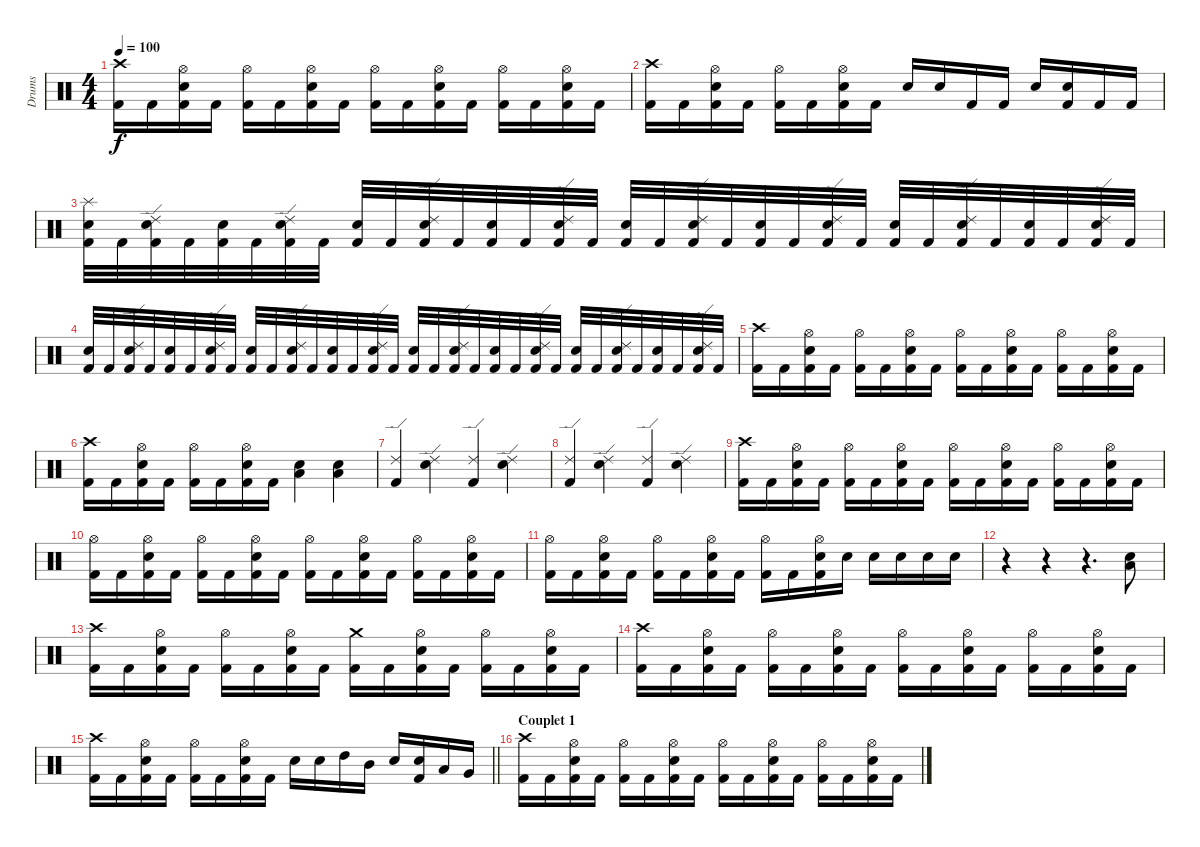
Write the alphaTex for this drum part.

\track ("Drums" "Drums") {instrument percussion}
\staff {score}
\articulation defaults
\ts (4 4)
\tempo 100
\clef neutral
\ks c
("Crash high (hit)" "Kick (hit) 2").16{dy f} "Kick (hit) 2".16 ("Snare (hit) 2" "Hi-Hat (open)" "Kick (hit) 2").16 "Kick (hit) 2".16 ("Hi-Hat (open)" "Kick (hit) 2").16 "Kick (hit) 2".16 ("Hi-Hat (open)" "Snare (hit) 2" "Kick (hit) 2").16 "Kick (hit) 2".16 ("Hi-Hat (open)" "Kick (hit) 2").16 "Kick (hit) 2".16 ("Hi-Hat (open)" "Snare (hit) 2" "Kick (hit) 2").16 "Kick (hit) 2".16 ("Hi-Hat (open)" "Kick (hit) 2").16 "Kick (hit) 2".16 ("Hi-Hat (open)" "Snare (hit) 2" "Kick (hit) 2").16 "Kick (hit) 2".16 |
("Crash high (hit)" "Kick (hit) 2").16 "Kick (hit) 2".16 ("Snare (hit) 2" "Hi-Hat (open)" "Kick (hit) 2").16 "Kick (hit) 2".16 ("Hi-Hat (open)" "Kick (hit) 2").16 "Kick (hit) 2".16 ("Hi-Hat (open)" "Snare (hit) 2" "Kick (hit) 2").16 "Kick (hit) 2".16 "Snare (hit) 2".16 "Snare (hit) 2".16 "Kick (hit) 2".16 "Kick (hit) 2".16 "Snare (hit) 2".16 ("Snare (hit) 2" "Kick (hit) 2").16 "Kick (hit) 2".16 "Kick (hit) 2".16 |
("Snare (hit) 2" "Splash (hit)" "Kick (hit) 2").32 "Kick (hit) 2".32 ("Snare (hit) 2" "Ride (edge) 2" "Kick (hit) 2").32 "Kick (hit) 2".32 ("Snare (hit) 2" "Kick (hit) 2").32 "Kick (hit) 2".32 ("Snare (hit) 2" "Ride (edge) 2" "Kick (hit) 2").32 "Kick (hit) 2".32 ("Snare (hit) 2" "Kick (hit) 2").32 "Kick (hit) 2".32 ("Snare (hit) 2" "Ride (edge) 2" "Kick (hit) 2").32 "Kick (hit) 2".32 ("Snare (hit) 2" "Kick (hit) 2").32 "Kick (hit) 2".32 ("Snare (hit) 2" "Ride (edge) 2" "Kick (hit) 2").32 "Kick (hit) 2".32 ("Snare (hit) 2" "Kick (hit) 2").32 "Kick (hit) 2".32 ("Snare (hit) 2" "Ride (edge) 2" "Kick (hit) 2").32 "Kick (hit) 2".32 ("Snare (hit) 2" "Kick (hit) 2").32 "Kick (hit) 2".32 ("Snare (hit) 2" "Ride (edge) 2" "Kick (hit) 2").32 "Kick (hit) 2".32 ("Snare (hit) 2" "Kick (hit) 2").32 "Kick (hit) 2".32 ("Snare (hit) 2" "Ride (edge) 2" "Kick (hit) 2").32 "Kick (hit) 2".32 ("Snare (hit) 2" "Kick (hit) 2").32 "Kick (hit) 2".32 ("Snare (hit) 2" "Ride (edge) 2" "Kick (hit) 2").32 "Kick (hit) 2".32 |
("Snare (hit) 2" "Kick (hit) 2").32 "Kick (hit) 2".32 ("Snare (hit) 2" "Ride (edge) 2" "Kick (hit) 2").32 "Kick (hit) 2".32 ("Snare (hit) 2" "Kick (hit) 2").32 "Kick (hit) 2".32 ("Snare (hit) 2" "Ride (edge) 2" "Kick (hit) 2").32 "Kick (hit) 2".32 ("Snare (hit) 2" "Kick (hit) 2").32 "Kick (hit) 2".32 ("Snare (hit) 2" "Ride (edge) 2" "Kick (hit) 2").32 "Kick (hit) 2".32 ("Snare (hit) 2" "Kick (hit) 2").32 "Kick (hit) 2".32 ("Snare (hit) 2" "Ride (edge) 2" "Kick (hit) 2").32 "Kick (hit) 2".32 ("Snare (hit) 2" "Kick (hit) 2").32 "Kick (hit) 2".32 ("Snare (hit) 2" "Ride (edge) 2" "Kick (hit) 2").32 "Kick (hit) 2".32 ("Snare (hit) 2" "Kick (hit) 2").32 "Kick (hit) 2".32 ("Snare (hit) 2" "Ride (edge) 2" "Kick (hit) 2").32 "Kick (hit) 2".32 ("Snare (hit) 2" "Kick (hit) 2").32 "Kick (hit) 2".32 ("Snare (hit) 2" "Ride (edge) 2" "Kick (hit) 2").32 "Kick (hit) 2".32 ("Snare (hit) 2" "Kick (hit) 2").32 "Kick (hit) 2".32 ("Snare (hit) 2" "Ride (edge) 2" "Kick (hit) 2").32 "Kick (hit) 2".32 |
("Crash high (hit)" "Kick (hit) 2").16 "Kick (hit) 2".16 ("Snare (hit) 2" "Hi-Hat (open)" "Kick (hit) 2").16 "Kick (hit) 2".16 ("Hi-Hat (open)" "Kick (hit) 2").16 "Kick (hit) 2".16 ("Hi-Hat (open)" "Snare (hit) 2" "Kick (hit) 2").16 "Kick (hit) 2".16 ("Hi-Hat (open)" "Kick (hit) 2").16 "Kick (hit) 2".16 ("Hi-Hat (open)" "Snare (hit) 2" "Kick (hit) 2").16 "Kick (hit) 2".16 ("Hi-Hat (open)" "Kick (hit) 2").16 "Kick (hit) 2".16 ("Hi-Hat (open)" "Snare (hit) 2" "Kick (hit) 2").16 "Kick (hit) 2".16 |
("Crash high (hit)" "Kick (hit) 2").16 "Kick (hit) 2".16 ("Snare (hit) 2" "Hi-Hat (open)" "Kick (hit) 2").16 "Kick (hit) 2".16 ("Hi-Hat (open)" "Kick (hit) 2").16 "Kick (hit) 2".16 ("Hi-Hat (open)" "Snare (hit) 2" "Kick (hit) 2").16 "Kick (hit) 2".16 ("Snare (hit) 2" "Low Floor Tom (hit)").4 ("Snare (hit) 2" "Low Floor Tom (hit)").4 |
("Ride (edge) 2" "Kick (hit) 2").4 ("Ride (edge) 2" "Snare (hit) 2").4 ("Ride (edge) 2" "Kick (hit) 2").4 ("Ride (edge) 2" "Snare (hit) 2").4 |
("Ride (edge) 2" "Kick (hit) 2").4 ("Ride (edge) 2" "Snare (hit) 2").4 ("Ride (edge) 2" "Kick (hit) 2").4 ("Ride (edge) 2" "Snare (hit) 2").4 |
("Crash high (hit)" "Kick (hit) 2").16 "Kick (hit) 2".16 ("Hi-Hat (open)" "Snare (hit) 2" "Kick (hit) 2").16 "Kick (hit) 2".16 ("Hi-Hat (open)" "Kick (hit) 2").16 "Kick (hit) 2".16 ("Hi-Hat (open)" "Snare (hit) 2" "Kick (hit) 2").16 "Kick (hit) 2".16 ("Hi-Hat (open)" "Kick (hit) 2").16 "Kick (hit) 2".16 ("Hi-Hat (open)" "Snare (hit) 2" "Kick (hit) 2").16 "Kick (hit) 2".16 ("Hi-Hat (open)" "Kick (hit) 2").16 "Kick (hit) 2".16 ("Hi-Hat (open)" "Snare (hit) 2" "Kick (hit) 2").16 "Kick (hit) 2".16 |
("Hi-Hat (open)" "Kick (hit) 2").16 "Kick (hit) 2".16 ("Hi-Hat (open)" "Snare (hit) 2" "Kick (hit) 2").16 "Kick (hit) 2".16 ("Hi-Hat (open)" "Kick (hit) 2").16 "Kick (hit) 2".16 ("Hi-Hat (open)" "Snare (hit) 2" "Kick (hit) 2").16 "Kick (hit) 2".16 ("Hi-Hat (open)" "Kick (hit) 2").16 "Kick (hit) 2".16 ("Hi-Hat (open)" "Snare (hit) 2" "Kick (hit) 2").16 "Kick (hit) 2".16 ("Hi-Hat (open)" "Kick (hit) 2").16 "Kick (hit) 2".16 ("Hi-Hat (open)" "Snare (hit) 2" "Kick (hit) 2").16 "Kick (hit) 2".16 |
("Hi-Hat (open)" "Kick (hit) 2").16 "Kick (hit) 2".16 ("Hi-Hat (open)" "Snare (hit) 2" "Kick (hit) 2").16 "Kick (hit) 2".16 ("Hi-Hat (open)" "Kick (hit) 2").16 "Kick (hit) 2".16 ("Hi-Hat (open)" "Snare (hit) 2" "Kick (hit) 2").16 "Kick (hit) 2".16 ("Hi-Hat (open)" "Kick (hit) 2").16 "Kick (hit) 2".16 ("Hi-Hat (open)" "Snare (hit) 2" "Kick (hit) 2").16 "Snare (hit) 2".16 "Snare (hit) 2".16 "Snare (hit) 2".16 "Snare (hit) 2".16 "Snare (hit) 2".16 |
r.4 r.4 r.4{d} ("Low Floor Tom (hit)" "Snare (hit) 2").8 |
("Crash high (hit)" "Kick (hit) 2").16 "Kick (hit) 2".16 ("Snare (hit) 2" "Hi-Hat (open)" "Kick (hit) 2").16 "Kick (hit) 2".16 ("Hi-Hat (open)" "Kick (hit) 2").16 "Kick (hit) 2".16 ("Hi-Hat (open)" "Snare (hit) 2" "Kick (hit) 2").16 "Kick (hit) 2".16 ("Crash medium (hit)" "Kick (hit) 2").16 "Kick (hit) 2".16 ("Hi-Hat (open)" "Snare (hit) 2" "Kick (hit) 2").16 "Kick (hit) 2".16 ("Hi-Hat (open)" "Kick (hit) 2").16 "Kick (hit) 2".16 ("Hi-Hat (open)" "Snare (hit) 2" "Kick (hit) 2").16 "Kick (hit) 2".16 |
("Crash high (hit)" "Kick (hit) 2").16 "Kick (hit) 2".16 ("Snare (hit) 2" "Hi-Hat (open)" "Kick (hit) 2").16 "Kick (hit) 2".16 ("Hi-Hat (open)" "Kick (hit) 2").16 "Kick (hit) 2".16 ("Hi-Hat (open)" "Snare (hit) 2" "Kick (hit) 2").16 "Kick (hit) 2".16 ("Hi-Hat (open)" "Kick (hit) 2").16 "Kick (hit) 2".16 ("Hi-Hat (open)" "Snare (hit) 2" "Kick (hit) 2").16 "Kick (hit) 2".16 ("Hi-Hat (open)" "Kick (hit) 2").16 "Kick (hit) 2".16 ("Hi-Hat (open)" "Snare (hit) 2" "Kick (hit) 2").16 "Kick (hit) 2".16 |
\barLineRight lightlight
("Crash high (hit)" "Kick (hit) 2").16 "Kick (hit) 2".16 ("Snare (hit) 2" "Hi-Hat (open)" "Kick (hit) 2").16 "Kick (hit) 2".16 ("Hi-Hat (open)" "Kick (hit) 2").16 "Kick (hit) 2".16 ("Hi-Hat (open)" "Snare (hit) 2" "Kick (hit) 2").16 "Kick (hit) 2".16 "Snare (hit) 2".16 "Snare (hit) 2".16 "High Tom (hit)".16 "Mid Tom (hit)".16 "Snare (hit) 2".16 ("Snare (hit) 2" "Kick (hit) 2").16 "Low Tom (hit)".16 "Very Low Tom (hit)".16 |
\section ("" "Couplet 1")
("Crash high (hit)" "Kick (hit) 2").16 "Kick (hit) 2".16 ("Hi-Hat (open)" "Snare (hit) 2" "Kick (hit) 2").16 "Kick (hit) 2".16 ("Hi-Hat (open)" "Kick (hit) 2").16 "Kick (hit) 2".16 ("Hi-Hat (open)" "Snare (hit) 2" "Kick (hit) 2").16 "Kick (hit) 2".16 ("Hi-Hat (open)" "Kick (hit) 2").16 "Kick (hit) 2".16 ("Hi-Hat (open)" "Snare (hit) 2" "Kick (hit) 2").16 "Kick (hit) 2".16 ("Hi-Hat (open)" "Kick (hit) 2").16 "Kick (hit) 2".16 ("Hi-Hat (open)" "Snare (hit) 2" "Kick (hit) 2").16 "Kick (hit) 2".16
